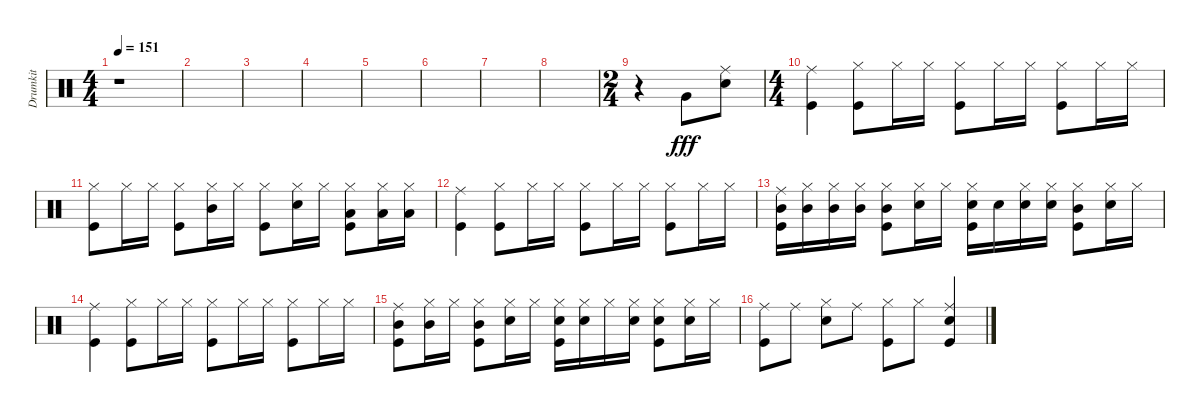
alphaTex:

\track ("Drumkit" "Drumkit") {instrument percussion}
\staff {score}
\articulation defaults
\ts (4 4)
\tempo 151
\clef neutral
\ks c
r.1{dy fff} |
|
|
|
|
|
|
|
\ts (2 4)
r.4 "Very Low Tom (hit)".8 ("Snare (hit) 2" "Ride (middle)").8 |
\ts (4 4)
("Ride (middle)" "Kick (hit)").4 ("Hi-Hat (closed)" "Kick (hit)").8 "Hi-Hat (closed)".16 "Hi-Hat (closed)".16 ("Hi-Hat (closed)" "Kick (hit)").8 "Hi-Hat (closed)".16 "Hi-Hat (closed)".16 ("Hi-Hat (closed)" "Kick (hit)").8 "Hi-Hat (closed)".16 "Hi-Hat (closed)".16 |
("Hi-Hat (closed)" "Kick (hit)").8 "Hi-Hat (closed)".16 "Hi-Hat (closed)".16 ("Hi-Hat (closed)" "Kick (hit)").8 ("Hi-Hat (closed)" "Mid Tom (hit)").16 "Hi-Hat (closed)".16 ("Hi-Hat (closed)" "Kick (hit)").8 ("Hi-Hat (closed)" "Snare (hit) 2").16 "Hi-Hat (closed)".16 ("Hi-Hat (closed)" "Low Floor Tom (hit)" "Kick (hit)").8 ("Hi-Hat (closed)" "Low Floor Tom (hit)").16 ("Hi-Hat (closed)" "Low Floor Tom (hit)").16 |
("Ride (middle)" "Kick (hit)").4 ("Hi-Hat (closed)" "Kick (hit)").8 "Hi-Hat (closed)".16 "Hi-Hat (closed)".16 ("Hi-Hat (closed)" "Kick (hit)").8 "Hi-Hat (closed)".16 "Hi-Hat (closed)".16 ("Hi-Hat (closed)" "Kick (hit)").8 "Hi-Hat (closed)".16 "Hi-Hat (closed)".16 |
("Ride (middle)" "Kick (hit)" "Mid Tom (hit)").16 ("Hi-Hat (closed)" "Mid Tom (hit)").16 ("Hi-Hat (closed)" "Mid Tom (hit)").16 ("Hi-Hat (closed)" "Mid Tom (hit)").16 ("Hi-Hat (closed)" "Kick (hit)" "Mid Tom (hit)").8 ("Hi-Hat (closed)" "Snare (hit) 2").16 "Hi-Hat (closed)".16 ("Hi-Hat (closed)" "Kick (hit)" "Snare (hit) 2").16 "Snare (hit) 2".16 ("Hi-Hat (closed)" "Snare (hit) 2").16 ("Hi-Hat (closed)" "Snare (hit) 2").16 ("Hi-Hat (closed)" "Kick (hit)" "Mid Tom (hit)").8 ("Hi-Hat (closed)" "Snare (hit) 2").16 "Hi-Hat (closed)".16 |
("Ride (middle)" "Kick (hit)").4 ("Hi-Hat (closed)" "Kick (hit)").8 "Hi-Hat (closed)".16 "Hi-Hat (closed)".16 ("Hi-Hat (closed)" "Kick (hit)").8 "Hi-Hat (closed)".16 "Hi-Hat (closed)".16 ("Hi-Hat (closed)" "Kick (hit)").8 "Hi-Hat (closed)".16 "Hi-Hat (closed)".16 |
("Mid Tom (hit)" "Kick (hit)" "Ride (middle)").8 ("Hi-Hat (closed)" "Mid Tom (hit)").16 "Hi-Hat (closed)".16 ("Hi-Hat (closed)" "Kick (hit)" "Mid Tom (hit)").8 ("Hi-Hat (closed)" "Snare (hit) 2").16 "Hi-Hat (closed)".16 ("Hi-Hat (closed)" "Snare (hit) 2" "Kick (hit)").16 ("Hi-Hat (closed)" "Snare (hit) 2").16 "Hi-Hat (closed)".16 ("Hi-Hat (closed)" "Snare (hit) 2").16 ("Hi-Hat (closed)" "Kick (hit)" "Snare (hit) 2").8 ("Hi-Hat (closed)" "Snare (hit) 2").16 "Hi-Hat (closed)".16 |
("Ride (middle)" "Kick (hit)").8 "Ride (middle)".8 ("Hi-Hat (closed)" "Snare (hit) 2").8 "Ride (middle)".8 ("Kick (hit)" "Hi-Hat (closed)").8 "Hi-Hat (closed)".8 ("Snare (hit) 2" "Kick (hit)" "Ride (middle)").4
